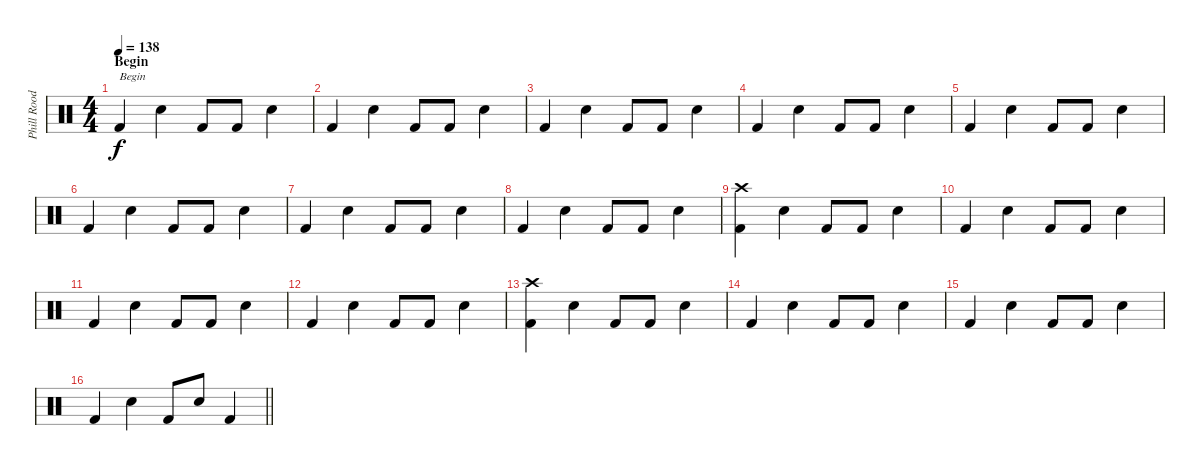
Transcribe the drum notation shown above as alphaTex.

\track ("Phill Rood" "Phill Rood") {instrument percussion}
\staff {score}
\articulation defaults
\ts (4 4)
\section ("" "Begin")
\tempo 138
\clef neutral
\ks c "Kick (hit) 2".4{txt "Begin" dy f} "Snare (hit) 2".4 "Kick (hit) 2".8 "Kick (hit) 2".8 "Snare (hit) 2".4
|
"Kick (hit) 2".4 "Snare (hit) 2".4 "Kick (hit) 2".8 "Kick (hit) 2".8 "Snare (hit) 2".4 |
"Kick (hit) 2".4 "Snare (hit) 2".4 "Kick (hit) 2".8 "Kick (hit) 2".8 "Snare (hit) 2".4 |
"Kick (hit) 2".4 "Snare (hit) 2".4 "Kick (hit) 2".8 "Kick (hit) 2".8 "Snare (hit) 2".4 |
"Kick (hit) 2".4 "Snare (hit) 2".4 "Kick (hit) 2".8 "Kick (hit) 2".8 "Snare (hit) 2".4 |
"Kick (hit) 2".4 "Snare (hit) 2".4 "Kick (hit) 2".8 "Kick (hit) 2".8 "Snare (hit) 2".4 |
"Kick (hit) 2".4 "Snare (hit) 2".4 "Kick (hit) 2".8 "Kick (hit) 2".8 "Snare (hit) 2".4 |
"Kick (hit) 2".4 "Snare (hit) 2".4 "Kick (hit) 2".8 "Kick (hit) 2".8 "Snare (hit) 2".4 |
("Kick (hit) 2" "Crash high (hit)").4 "Snare (hit) 2".4 "Kick (hit) 2".8 "Kick (hit) 2".8 "Snare (hit) 2".4 |
"Kick (hit) 2".4 "Snare (hit) 2".4 "Kick (hit) 2".8 "Kick (hit) 2".8 "Snare (hit) 2".4 |
"Kick (hit) 2".4 "Snare (hit) 2".4 "Kick (hit) 2".8 "Kick (hit) 2".8 "Snare (hit) 2".4 |
"Kick (hit) 2".4 "Snare (hit) 2".4 "Kick (hit) 2".8 "Kick (hit) 2".8 "Snare (hit) 2".4 |
("Kick (hit) 2" "Crash high (hit)").4 "Snare (hit) 2".4 "Kick (hit) 2".8 "Kick (hit) 2".8 "Snare (hit) 2".4 |
"Kick (hit) 2".4 "Snare (hit) 2".4 "Kick (hit) 2".8 "Kick (hit) 2".8 "Snare (hit) 2".4 |
"Kick (hit) 2".4 "Snare (hit) 2".4 "Kick (hit) 2".8 "Kick (hit) 2".8 "Snare (hit) 2".4 |
\barLineRight lightlight "Kick (hit) 2".4 "Snare (hit) 2".4 "Kick (hit) 2".8 "Snare (hit) 2".8 "Kick (hit) 2".4
